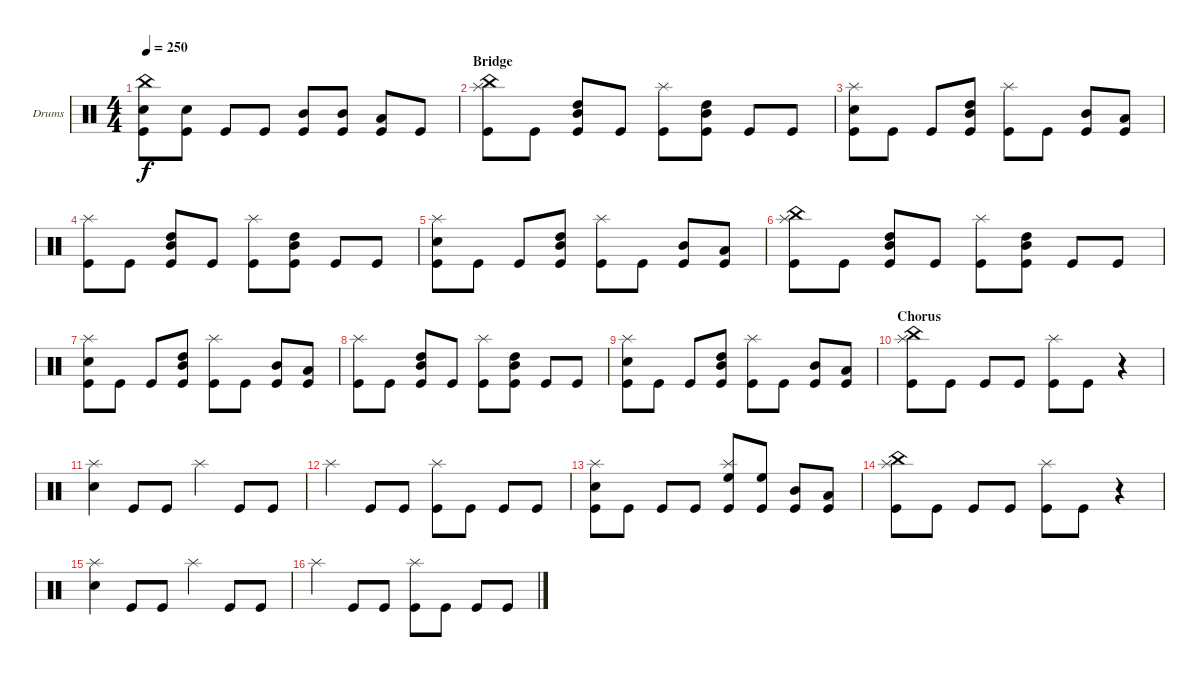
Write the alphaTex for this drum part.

\defaultSystemsLayout 4
\bracketExtendMode groupsimilarinstruments
\firstSystemTrackNameOrientation horizontal
\otherSystemsTrackNameOrientation horizontal
\track ("Drumkit" "Drums") {instrument percussion}
\staff {score}
\articulation defaults
\ts (4 4)
\tempo 250
\clef neutral
\ks c
("Kick (hit)" "Snare (hit) 2" "China (hit)").8{dy f} ("Kick (hit)" "Snare (hit) 2").8 "Kick (hit)".8 "Kick (hit)".8 ("Kick (hit)" "Mid Tom (hit)").8 ("Kick (hit)" "Mid Tom (hit)").8 ("Kick (hit)" "Low Tom (hit)").8 "Kick (hit)".8 |
\section ("" "Bridge")
("Kick (hit)" "Splash (hit)" "China (hit)").8 "Kick (hit)".8 ("Kick (hit)" "Mid Tom (hit)" "High Tom (hit)").8 "Kick (hit)".8 ("Kick (hit)" "Splash (hit)").8 ("Kick (hit)" "Mid Tom (hit)" "High Tom (hit)").8 "Kick (hit)".8 "Kick (hit)".8 |
("Kick (hit)" "Splash (hit)" "Snare (hit) 2").8 "Kick (hit)".8 "Kick (hit)".8 ("Kick (hit)" "Mid Tom (hit)" "High Tom (hit)").8 ("Kick (hit)" "Splash (hit)").8 "Kick (hit)".8 ("Kick (hit)" "Mid Tom (hit)").8 ("Kick (hit)" "Low Tom (hit)").8 |
("Kick (hit)" "Splash (hit)").8 "Kick (hit)".8 ("Kick (hit)" "Mid Tom (hit)" "High Tom (hit)").8 "Kick (hit)".8 ("Kick (hit)" "Splash (hit)").8 ("Kick (hit)" "Mid Tom (hit)" "High Tom (hit)").8 "Kick (hit)".8 "Kick (hit)".8 |
("Kick (hit)" "Splash (hit)" "Snare (hit) 2").8 "Kick (hit)".8 "Kick (hit)".8 ("Kick (hit)" "Mid Tom (hit)" "High Tom (hit)").8 ("Kick (hit)" "Splash (hit)").8 "Kick (hit)".8 ("Kick (hit)" "Mid Tom (hit)").8 ("Kick (hit)" "Low Tom (hit)").8 |
("Kick (hit)" "Splash (hit)" "China (hit)").8 "Kick (hit)".8 ("Kick (hit)" "Mid Tom (hit)" "High Tom (hit)").8 "Kick (hit)".8 ("Kick (hit)" "Splash (hit)").8 ("Kick (hit)" "Mid Tom (hit)" "High Tom (hit)").8 "Kick (hit)".8 "Kick (hit)".8 |
("Kick (hit)" "Splash (hit)" "Snare (hit) 2").8 "Kick (hit)".8 "Kick (hit)".8 ("Kick (hit)" "Mid Tom (hit)" "High Tom (hit)").8 ("Kick (hit)" "Splash (hit)").8 "Kick (hit)".8 ("Kick (hit)" "Mid Tom (hit)").8 ("Kick (hit)" "Low Tom (hit)").8 |
("Kick (hit)" "Splash (hit)").8 "Kick (hit)".8 ("Kick (hit)" "Mid Tom (hit)" "High Tom (hit)").8 "Kick (hit)".8 ("Kick (hit)" "Splash (hit)").8 ("Kick (hit)" "Mid Tom (hit)" "High Tom (hit)").8 "Kick (hit)".8 "Kick (hit)".8 |
("Kick (hit)" "Splash (hit)" "Snare (hit) 2").8 "Kick (hit)".8 "Kick (hit)".8 ("Kick (hit)" "Mid Tom (hit)" "High Tom (hit)").8 ("Kick (hit)" "Splash (hit)").8 "Kick (hit)".8 ("Kick (hit)" "Mid Tom (hit)").8 ("Kick (hit)" "Low Tom (hit)").8 |
\section ("" "Chorus")
("Kick (hit)" "China (hit)" "Splash (hit)").8 "Kick (hit)".8 "Kick (hit)".8 "Kick (hit)".8 ("Kick (hit)" "Splash (hit)").8 "Kick (hit)".8 r.4 |
("Splash (hit)" "Snare (hit) 2").4 "Kick (hit)".8 "Kick (hit)".8 "Splash (hit)".4 "Kick (hit)".8 "Kick (hit)".8 |
"Splash (hit)".4 "Kick (hit)".8 "Kick (hit)".8 ("Kick (hit)" "Splash (hit)").8 "Kick (hit)".8 "Kick (hit)".8 "Kick (hit)".8 |
("Kick (hit)" "Snare (hit) 2" "Splash (hit)").8 "Kick (hit)".8 "Kick (hit)".8 "Kick (hit)".8 ("Kick (hit)" "Splash (hit)" "High Floor Tom (hit)").8 ("Kick (hit)" "High Floor Tom (hit)").8 ("Kick (hit)" "Mid Tom (hit)").8 ("Kick (hit)" "Low Tom (hit)").8 |
("Kick (hit)" "China (hit)" "Splash (hit)").8 "Kick (hit)".8 "Kick (hit)".8 "Kick (hit)".8 ("Kick (hit)" "Splash (hit)").8 "Kick (hit)".8 r.4 |
("Splash (hit)" "Snare (hit) 2").4 "Kick (hit)".8 "Kick (hit)".8 "Splash (hit)".4 "Kick (hit)".8 "Kick (hit)".8 |
"Splash (hit)".4 "Kick (hit)".8 "Kick (hit)".8 ("Kick (hit)" "Splash (hit)").8 "Kick (hit)".8 "Kick (hit)".8 "Kick (hit)".8
